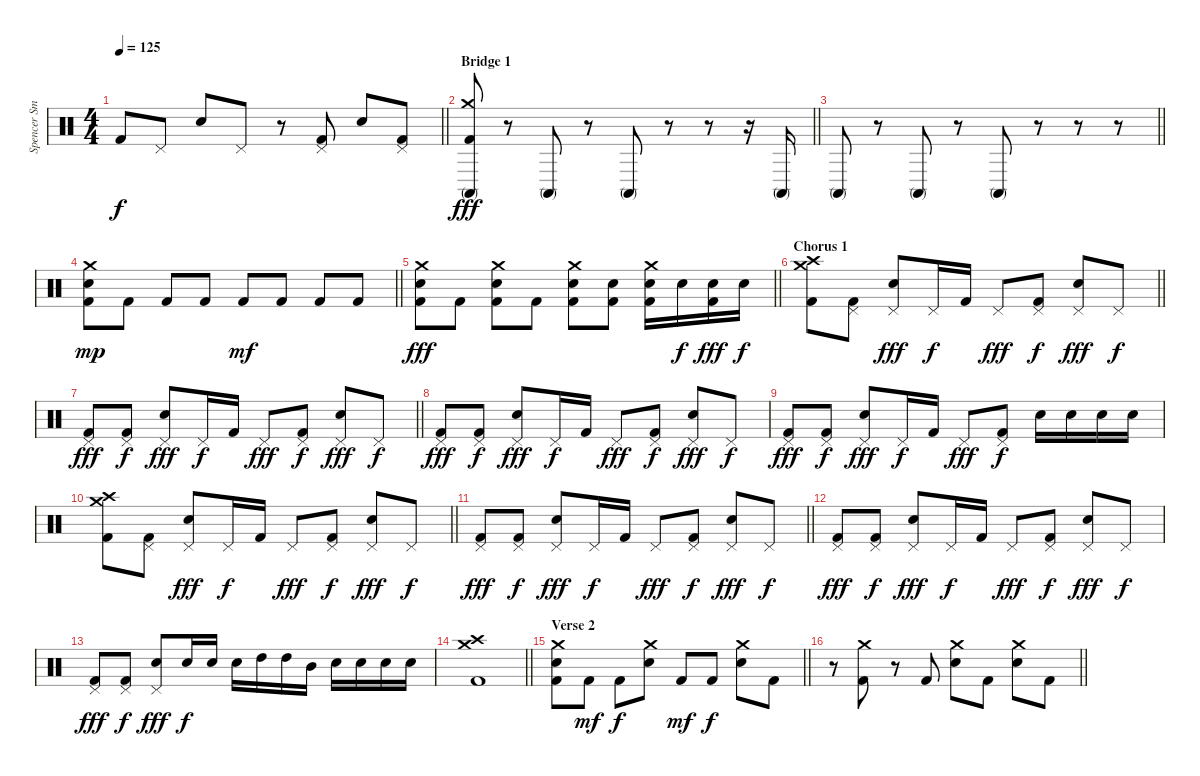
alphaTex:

\track ("Spencer Smith (Drums)" "Spencer Sm") {instrument percussion}
\staff {score}
\articulation defaults
\ts (4 4)
\tempo 125
\clef neutral
\barLineRight lightlight
\ks c "Kick (hit) 2".8{dy f} "Pedal Hi-Hat (hit)".8 "Electric Snare (hit)".8 "Pedal Hi-Hat (hit)".8
r.8 ("Pedal Hi-Hat (hit)" "Kick (hit) 2").8 "Electric Snare (hit)".8 ("Pedal Hi-Hat (hit)" "Kick (hit) 2").8 |
\section ("" "Bridge 1")
\barLineRight lightlight
("Crash medium (hit)" "Conga high (mute)" "Kick (hit) 2").8{dy fff} r.8 "Conga high (mute)".8 r.8 "Conga high (mute)".8 r.8 r.8 r.16 "Conga high (mute)".16 |
\barLineRight lightlight "Conga high (mute)".8
r.8 "Conga high (mute)".8 r.8 "Conga high (mute)".8 r.8 r.8 r.8 |
\barLineRight lightlight
("Crash medium (hit)" "Electric Snare (hit)" "Kick (hit) 2").8{dy mp} "Kick (hit) 2".8 "Kick (hit) 2".8 "Kick (hit) 2".8 "Kick (hit) 2".8{dy mf} "Kick (hit) 2".8 "Kick (hit) 2".8 "Kick (hit) 2".8 |
\barLineRight lightlight
("Crash medium (hit)" "Electric Snare (hit)" "Kick (hit) 2").8{dy fff} "Kick (hit) 2".8 ("Crash medium (hit)" "Electric Snare (hit)" "Kick (hit) 2").8 "Kick (hit) 2".8 ("Crash medium (hit)" "Electric Snare (hit)" "Kick (hit) 2").8 ("Electric Snare (hit)" "Kick (hit) 2").8 ("Crash medium (hit)" "Electric Snare (hit)" "Kick (hit) 2").16 "Electric Snare (hit)".16{dy f} ("Electric Snare (hit)" "Kick (hit) 2").16{dy fff} "Electric Snare (hit)".16{dy f} |
\section ("" "Chorus 1")
\barLineRight lightlight
("Crash high (hit)" "Crash medium (hit)" "Kick (hit) 2").8 ("Pedal Hi-Hat (hit)" "Kick (hit) 2").8 ("Pedal Hi-Hat (hit)" "Electric Snare (hit)").8{dy fff} "Pedal Hi-Hat (hit)".16{dy f} "Kick (hit) 2".16 "Pedal Hi-Hat (hit)".8{dy fff} ("Pedal Hi-Hat (hit)" "Kick (hit) 2").8{dy f} ("Pedal Hi-Hat (hit)" "Electric Snare (hit)").8{dy fff} "Pedal Hi-Hat (hit)".8{dy f} |
\barLineRight lightlight
("Pedal Hi-Hat (hit)" "Kick (hit) 2").8{dy fff} ("Pedal Hi-Hat (hit)" "Kick (hit) 2").8{dy f} ("Pedal Hi-Hat (hit)" "Electric Snare (hit)").8{dy fff} "Pedal Hi-Hat (hit)".16{dy f} "Kick (hit) 2".16 "Pedal Hi-Hat (hit)".8{dy fff} ("Pedal Hi-Hat (hit)" "Kick (hit) 2").8{dy f} ("Pedal Hi-Hat (hit)" "Electric Snare (hit)").8{dy fff} "Pedal Hi-Hat (hit)".8{dy f} |
("Pedal Hi-Hat (hit)" "Kick (hit) 2").8{dy fff} ("Pedal Hi-Hat (hit)" "Kick (hit) 2").8{dy f} ("Pedal Hi-Hat (hit)" "Electric Snare (hit)").8{dy fff} "Pedal Hi-Hat (hit)".16{dy f} "Kick (hit) 2".16 "Pedal Hi-Hat (hit)".8{dy fff} ("Pedal Hi-Hat (hit)" "Kick (hit) 2").8{dy f} ("Pedal Hi-Hat (hit)" "Electric Snare (hit)").8{dy fff} "Pedal Hi-Hat (hit)".8{dy f} |
("Pedal Hi-Hat (hit)" "Kick (hit) 2").8{dy fff} ("Pedal Hi-Hat (hit)" "Kick (hit) 2").8{dy f} ("Pedal Hi-Hat (hit)" "Electric Snare (hit)").8{dy fff} "Pedal Hi-Hat (hit)".16{dy f} "Kick (hit) 2".16 "Pedal Hi-Hat (hit)".8{dy fff} ("Pedal Hi-Hat (hit)" "Kick (hit) 2").8{dy f} "Electric Snare (hit)".16 "Electric Snare (hit)".16 "Electric Snare (hit)".16 "Electric Snare (hit)".16 |
\barLineRight lightlight
("Crash high (hit)" "Crash medium (hit)" "Kick (hit) 2").8 ("Pedal Hi-Hat (hit)" "Kick (hit) 2").8 ("Pedal Hi-Hat (hit)" "Electric Snare (hit)").8{dy fff} "Pedal Hi-Hat (hit)".16{dy f} "Kick (hit) 2".16 "Pedal Hi-Hat (hit)".8{dy fff} ("Pedal Hi-Hat (hit)" "Kick (hit) 2").8{dy f} ("Pedal Hi-Hat (hit)" "Electric Snare (hit)").8{dy fff} "Pedal Hi-Hat (hit)".8{dy f} |
\barLineRight lightlight
("Pedal Hi-Hat (hit)" "Kick (hit) 2").8{dy fff} ("Pedal Hi-Hat (hit)" "Kick (hit) 2").8{dy f} ("Pedal Hi-Hat (hit)" "Electric Snare (hit)").8{dy fff} "Pedal Hi-Hat (hit)".16{dy f} "Kick (hit) 2".16 "Pedal Hi-Hat (hit)".8{dy fff} ("Pedal Hi-Hat (hit)" "Kick (hit) 2").8{dy f} ("Pedal Hi-Hat (hit)" "Electric Snare (hit)").8{dy fff} "Pedal Hi-Hat (hit)".8{dy f} |
("Pedal Hi-Hat (hit)" "Kick (hit) 2").8{dy fff} ("Pedal Hi-Hat (hit)" "Kick (hit) 2").8{dy f} ("Pedal Hi-Hat (hit)" "Electric Snare (hit)").8{dy fff} "Pedal Hi-Hat (hit)".16{dy f} "Kick (hit) 2".16 "Pedal Hi-Hat (hit)".8{dy fff} ("Pedal Hi-Hat (hit)" "Kick (hit) 2").8{dy f} ("Pedal Hi-Hat (hit)" "Electric Snare (hit)").8{dy fff} "Pedal Hi-Hat (hit)".8{dy f} |
("Pedal Hi-Hat (hit)" "Kick (hit) 2").8{dy fff} ("Pedal Hi-Hat (hit)" "Kick (hit) 2").8{dy f} ("Pedal Hi-Hat (hit)" "Electric Snare (hit)").8{dy fff} "Electric Snare (hit)".16{dy f} "Electric Snare (hit)".16 "Electric Snare (hit)".16 "High Tom (hit)".16 "High Tom (hit)".16 "Mid Tom (hit)".16 "Electric Snare (hit)".16 "Electric Snare (hit)".16 "Electric Snare (hit)".16 "Electric Snare (hit)".16 |
\barLineRight lightlight
("Crash high (hit)" "Crash medium (hit)" "Kick (hit) 2").1 |
\section ("" "Verse 2")
\barLineRight lightlight
("Crash medium (hit)" "Electric Snare (hit)" "Kick (hit) 2").8 "Kick (hit) 2".8{dy mf} "Kick (hit) 2".8{dy f} ("Crash medium (hit)" "Electric Snare (hit)").8 "Kick (hit) 2".8{dy mf} "Kick (hit) 2".8{dy f} ("Crash medium (hit)" "Electric Snare (hit)").8 "Kick (hit) 2".8 |
\barLineRight lightlight
r.8 ("Crash medium (hit)" "Kick (hit) 2").8 r.8 "Kick (hit) 2".8 ("Crash medium (hit)" "Electric Snare (hit)").8 "Kick (hit) 2".8 ("Crash medium (hit)" "Electric Snare (hit)").8 "Kick (hit) 2".8
